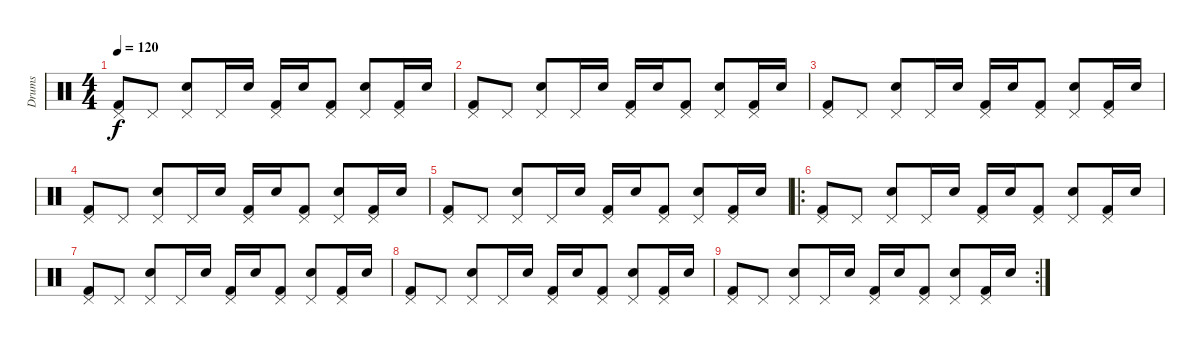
\track ("Drums" "Drums") {instrument percussion}
\staff {score}
\articulation defaults
\ts (4 4)
\tempo 120
\clef neutral
\ks c
("Pedal Hi-Hat (hit)" "Kick (hit) 2").8{dy f} "Pedal Hi-Hat (hit)".8 ("Pedal Hi-Hat (hit)" "Snare (hit) 2").8 "Pedal Hi-Hat (hit)".16 "Snare (hit) 2".16 ("Pedal Hi-Hat (hit)" "Kick (hit) 2").16 "Snare (hit) 2".16 ("Pedal Hi-Hat (hit)" "Kick (hit) 2").8 ("Pedal Hi-Hat (hit)" "Snare (hit) 2").8 ("Pedal Hi-Hat (hit)" "Kick (hit) 2").16 "Snare (hit) 2".16 |
("Pedal Hi-Hat (hit)" "Kick (hit) 2").8 "Pedal Hi-Hat (hit)".8 ("Pedal Hi-Hat (hit)" "Snare (hit) 2").8 "Pedal Hi-Hat (hit)".16 "Snare (hit) 2".16 ("Pedal Hi-Hat (hit)" "Kick (hit) 2").16 "Snare (hit) 2".16 ("Pedal Hi-Hat (hit)" "Kick (hit) 2").8 ("Pedal Hi-Hat (hit)" "Snare (hit) 2").8 ("Pedal Hi-Hat (hit)" "Kick (hit) 2").16 "Snare (hit) 2".16 |
("Pedal Hi-Hat (hit)" "Kick (hit) 2").8 "Pedal Hi-Hat (hit)".8 ("Pedal Hi-Hat (hit)" "Snare (hit) 2").8 "Pedal Hi-Hat (hit)".16 "Snare (hit) 2".16 ("Pedal Hi-Hat (hit)" "Kick (hit) 2").16 "Snare (hit) 2".16 ("Pedal Hi-Hat (hit)" "Kick (hit) 2").8 ("Pedal Hi-Hat (hit)" "Snare (hit) 2").8 ("Pedal Hi-Hat (hit)" "Kick (hit) 2").16 "Snare (hit) 2".16 |
("Pedal Hi-Hat (hit)" "Kick (hit) 2").8 "Pedal Hi-Hat (hit)".8 ("Pedal Hi-Hat (hit)" "Snare (hit) 2").8 "Pedal Hi-Hat (hit)".16 "Snare (hit) 2".16 ("Pedal Hi-Hat (hit)" "Kick (hit) 2").16 "Snare (hit) 2".16 ("Pedal Hi-Hat (hit)" "Kick (hit) 2").8 ("Pedal Hi-Hat (hit)" "Snare (hit) 2").8 ("Pedal Hi-Hat (hit)" "Kick (hit) 2").16 "Snare (hit) 2".16 |
("Pedal Hi-Hat (hit)" "Kick (hit) 2").8 "Pedal Hi-Hat (hit)".8 ("Pedal Hi-Hat (hit)" "Snare (hit) 2").8 "Pedal Hi-Hat (hit)".16 "Snare (hit) 2".16 ("Pedal Hi-Hat (hit)" "Kick (hit) 2").16 "Snare (hit) 2".16 ("Pedal Hi-Hat (hit)" "Kick (hit) 2").8 ("Pedal Hi-Hat (hit)" "Snare (hit) 2").8 ("Pedal Hi-Hat (hit)" "Kick (hit) 2").16 "Snare (hit) 2".16 |
\ro
("Pedal Hi-Hat (hit)" "Kick (hit) 2").8 "Pedal Hi-Hat (hit)".8 ("Pedal Hi-Hat (hit)" "Snare (hit) 2").8 "Pedal Hi-Hat (hit)".16 "Snare (hit) 2".16 ("Pedal Hi-Hat (hit)" "Kick (hit) 2").16 "Snare (hit) 2".16 ("Pedal Hi-Hat (hit)" "Kick (hit) 2").8 ("Pedal Hi-Hat (hit)" "Snare (hit) 2").8 ("Pedal Hi-Hat (hit)" "Kick (hit) 2").16 "Snare (hit) 2".16 |
("Pedal Hi-Hat (hit)" "Kick (hit) 2").8 "Pedal Hi-Hat (hit)".8 ("Pedal Hi-Hat (hit)" "Snare (hit) 2").8 "Pedal Hi-Hat (hit)".16 "Snare (hit) 2".16 ("Pedal Hi-Hat (hit)" "Kick (hit) 2").16 "Snare (hit) 2".16 ("Pedal Hi-Hat (hit)" "Kick (hit) 2").8 ("Pedal Hi-Hat (hit)" "Snare (hit) 2").8 ("Pedal Hi-Hat (hit)" "Kick (hit) 2").16 "Snare (hit) 2".16 |
("Pedal Hi-Hat (hit)" "Kick (hit) 2").8 "Pedal Hi-Hat (hit)".8 ("Pedal Hi-Hat (hit)" "Snare (hit) 2").8 "Pedal Hi-Hat (hit)".16 "Snare (hit) 2".16 ("Pedal Hi-Hat (hit)" "Kick (hit) 2").16 "Snare (hit) 2".16 ("Pedal Hi-Hat (hit)" "Kick (hit) 2").8 ("Pedal Hi-Hat (hit)" "Snare (hit) 2").8 ("Pedal Hi-Hat (hit)" "Kick (hit) 2").16 "Snare (hit) 2".16 |
\rc 2
("Pedal Hi-Hat (hit)" "Kick (hit) 2").8 "Pedal Hi-Hat (hit)".8 ("Pedal Hi-Hat (hit)" "Snare (hit) 2").8 "Pedal Hi-Hat (hit)".16 "Snare (hit) 2".16 ("Pedal Hi-Hat (hit)" "Kick (hit) 2").16 "Snare (hit) 2".16 ("Pedal Hi-Hat (hit)" "Kick (hit) 2").8 ("Pedal Hi-Hat (hit)" "Snare (hit) 2").8 ("Pedal Hi-Hat (hit)" "Kick (hit) 2").16 "Snare (hit) 2".16
